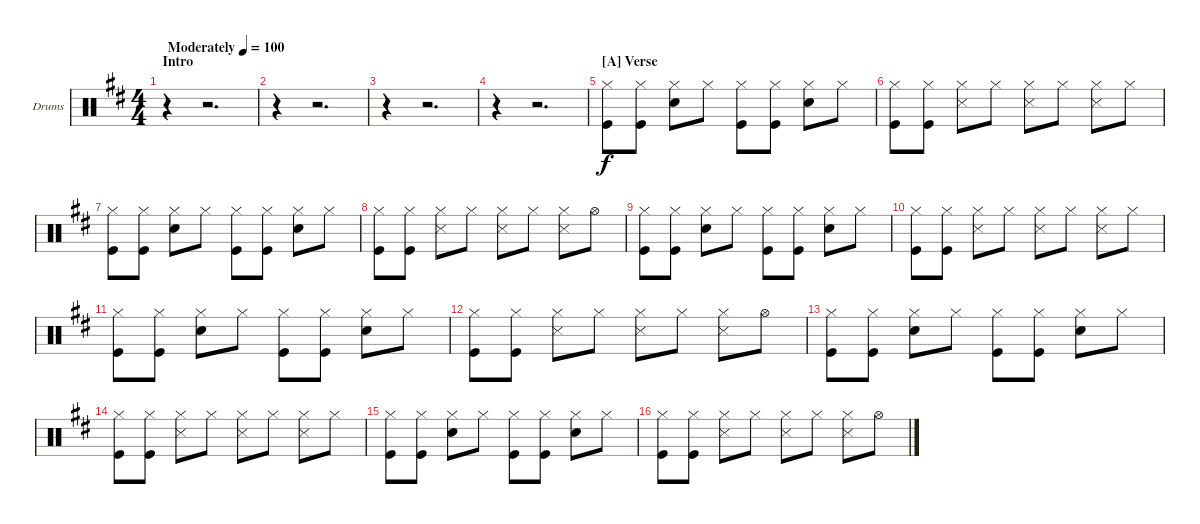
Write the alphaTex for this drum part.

\defaultSystemsLayout 4
\bracketExtendMode groupsimilarinstruments
\firstSystemTrackNameOrientation horizontal
\otherSystemsTrackNameOrientation horizontal
\track ("Drumkit" "Drums") {instrument percussion}
\staff {score}
\articulation defaults
\ts (4 4)
\section ("" "Intro")
\tempo (100 "Moderately")
\clef neutral
\scale
1.08071
\ks d
r.4{dy f} r.2{d} |
\scale
0.919294 r.4 r.2{d} |
\scale
1.05044 r.4 r.2{d} |
\scale
0.949559 r.4 r.2{d} |
\section ("A" "Verse")
\scale
1.05044 ("Hi-Hat (closed)" "Kick (hit)").8 ("Hi-Hat (closed)" "Kick (hit)").8 ("Hi-Hat (closed)" "Snare (hit) 2").8 "Hi-Hat (closed)".8 ("Hi-Hat (closed)" "Kick (hit)").8 ("Hi-Hat (closed)" "Kick (hit)").8 ("Hi-Hat (closed)" "Snare (hit) 2").8 "Hi-Hat (closed)".8 |
\scale
0.949559 ("Hi-Hat (closed)" "Kick (hit)").8 ("Hi-Hat (closed)" "Kick (hit)").8 ("Hi-Hat (closed)" "Snare (side stick) 3").8 "Hi-Hat (closed)".8 ("Hi-Hat (closed)" "Snare (side stick) 3").8 "Hi-Hat (closed)".8 ("Hi-Hat (closed)" "Snare (side stick) 3").8 "Hi-Hat (closed)".8 |
\scale
1.05044 ("Hi-Hat (closed)" "Kick (hit)").8 ("Hi-Hat (closed)" "Kick (hit)").8 ("Hi-Hat (closed)" "Snare (hit) 2").8 "Hi-Hat (closed)".8 ("Hi-Hat (closed)" "Kick (hit)").8 ("Hi-Hat (closed)" "Kick (hit)").8 ("Hi-Hat (closed)" "Snare (hit) 2").8 "Hi-Hat (closed)".8 |
\scale
0.949559 ("Hi-Hat (closed)" "Kick (hit)").8 ("Hi-Hat (closed)" "Kick (hit)").8 ("Hi-Hat (closed)" "Snare (side stick) 3").8 "Hi-Hat (closed)".8 ("Hi-Hat (closed)" "Snare (side stick) 3").8 "Hi-Hat (closed)".8 ("Hi-Hat (closed)" "Snare (side stick) 3").8 "Hi-Hat (open)".8 |
\scale
1.05044 ("Hi-Hat (closed)" "Kick (hit)").8 ("Hi-Hat (closed)" "Kick (hit)").8 ("Hi-Hat (closed)" "Snare (hit) 2").8 "Hi-Hat (closed)".8 ("Hi-Hat (closed)" "Kick (hit)").8 ("Hi-Hat (closed)" "Kick (hit)").8 ("Hi-Hat (closed)" "Snare (hit) 2").8 "Hi-Hat (closed)".8 |
\scale
0.949559 ("Hi-Hat (closed)" "Kick (hit)").8 ("Hi-Hat (closed)" "Kick (hit)").8 ("Hi-Hat (closed)" "Snare (side stick) 3").8 "Hi-Hat (closed)".8 ("Hi-Hat (closed)" "Snare (side stick) 3").8 "Hi-Hat (closed)".8 ("Hi-Hat (closed)" "Snare (side stick) 3").8 "Hi-Hat (closed)".8 |
\scale
1.05044 ("Hi-Hat (closed)" "Kick (hit)").8 ("Hi-Hat (closed)" "Kick (hit)").8 ("Hi-Hat (closed)" "Snare (hit) 2").8 "Hi-Hat (closed)".8 ("Hi-Hat (closed)" "Kick (hit)").8 ("Hi-Hat (closed)" "Kick (hit)").8 ("Hi-Hat (closed)" "Snare (hit) 2").8 "Hi-Hat (closed)".8 |
\scale
0.949559 ("Hi-Hat (closed)" "Kick (hit)").8 ("Hi-Hat (closed)" "Kick (hit)").8 ("Hi-Hat (closed)" "Snare (side stick) 3").8 "Hi-Hat (closed)".8 ("Hi-Hat (closed)" "Snare (side stick) 3").8 "Hi-Hat (closed)".8 ("Hi-Hat (closed)" "Snare (side stick) 3").8 "Hi-Hat (open)".8 |
\scale
1.05044 ("Hi-Hat (closed)" "Kick (hit)").8 ("Hi-Hat (closed)" "Kick (hit)").8 ("Hi-Hat (closed)" "Snare (hit) 2").8 "Hi-Hat (closed)".8 ("Hi-Hat (closed)" "Kick (hit)").8 ("Hi-Hat (closed)" "Kick (hit)").8 ("Hi-Hat (closed)" "Snare (hit) 2").8 "Hi-Hat (closed)".8 |
\scale
0.949559 ("Hi-Hat (closed)" "Kick (hit)").8 ("Hi-Hat (closed)" "Kick (hit)").8 ("Hi-Hat (closed)" "Snare (side stick) 3").8 "Hi-Hat (closed)".8 ("Hi-Hat (closed)" "Snare (side stick) 3").8 "Hi-Hat (closed)".8 ("Hi-Hat (closed)" "Snare (side stick) 3").8 "Hi-Hat (closed)".8 |
\scale
1.05044 ("Hi-Hat (closed)" "Kick (hit)").8 ("Hi-Hat (closed)" "Kick (hit)").8 ("Hi-Hat (closed)" "Snare (hit) 2").8 "Hi-Hat (closed)".8 ("Hi-Hat (closed)" "Kick (hit)").8 ("Hi-Hat (closed)" "Kick (hit)").8 ("Hi-Hat (closed)" "Snare (hit) 2").8 "Hi-Hat (closed)".8 |
\scale
0.949559 ("Hi-Hat (closed)" "Kick (hit)").8 ("Hi-Hat (closed)" "Kick (hit)").8 ("Hi-Hat (closed)" "Snare (side stick) 3").8 "Hi-Hat (closed)".8 ("Hi-Hat (closed)" "Snare (side stick) 3").8 "Hi-Hat (closed)".8 ("Hi-Hat (closed)" "Snare (side stick) 3").8 "Hi-Hat (open)".8
